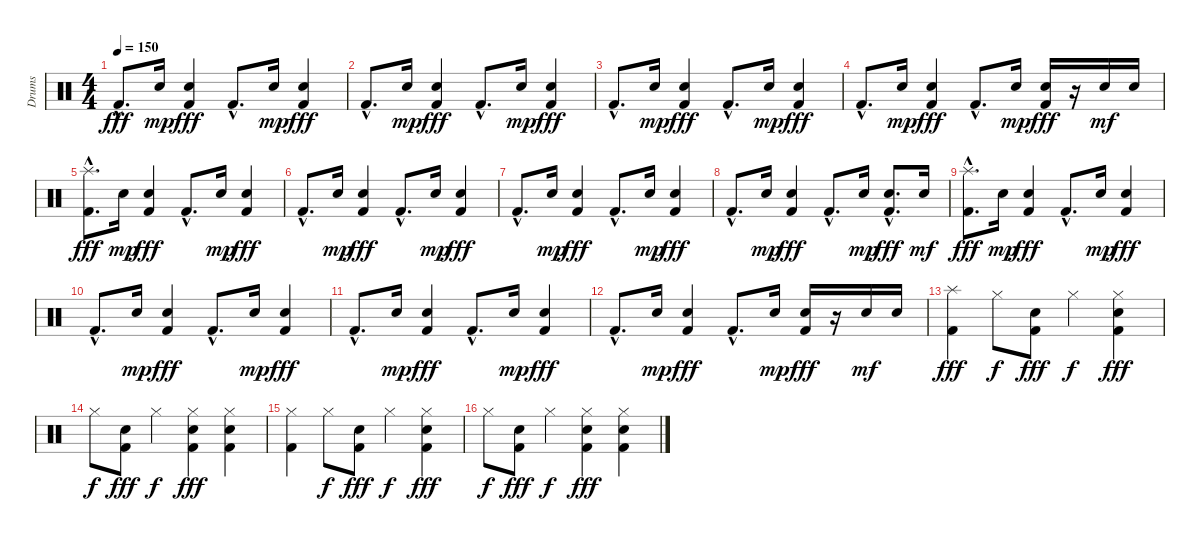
\track ("Drums" "Drums") {instrument percussion}
\staff {score}
\articulation defaults
\ts (4 4)
\tempo 150
\clef neutral
\ks c "Kick (hit) 2"{hac}.8{d dy fff} "Snare (hit) 2".16{dy mp}
("Snare (hit) 2" "Kick (hit) 2").4{dy fff} "Kick (hit) 2"{hac}.8{d} "Snare (hit) 2".16{dy mp} ("Snare (hit) 2" "Kick (hit) 2").4{dy fff} |
"Kick (hit) 2"{hac}.8{d} "Snare (hit) 2".16{dy mp} ("Snare (hit) 2" "Kick (hit) 2").4{dy fff} "Kick (hit) 2"{hac}.8{d} "Snare (hit) 2".16{dy mp} ("Snare (hit) 2" "Kick (hit) 2").4{dy fff} |
"Kick (hit) 2"{hac}.8{d} "Snare (hit) 2".16{dy mp} ("Snare (hit) 2" "Kick (hit) 2").4{dy fff} "Kick (hit) 2"{hac}.8{d} "Snare (hit) 2".16{dy mp} ("Snare (hit) 2" "Kick (hit) 2").4{dy fff} |
"Kick (hit) 2"{hac}.8{d} "Snare (hit) 2".16{dy mp} ("Snare (hit) 2" "Kick (hit) 2").4{dy fff} "Kick (hit) 2"{hac}.8{d} "Snare (hit) 2".16{dy mp} ("Snare (hit) 2" "Kick (hit) 2").16{dy fff} r.16 "Snare (hit) 2".16{dy mf} "Snare (hit) 2".16 |
("Splash (hit)"{hac} "Kick (hit) 2"{hac}).8{d dy fff} "Snare (hit) 2".16{dy mp} ("Snare (hit) 2" "Kick (hit) 2").4{dy fff} "Kick (hit) 2"{hac}.8{d} "Snare (hit) 2".16{dy mp} ("Snare (hit) 2" "Kick (hit) 2").4{dy fff} |
"Kick (hit) 2"{hac}.8{d} "Snare (hit) 2".16{dy mp} ("Snare (hit) 2" "Kick (hit) 2").4{dy fff} "Kick (hit) 2"{hac}.8{d} "Snare (hit) 2".16{dy mp} ("Snare (hit) 2" "Kick (hit) 2").4{dy fff} |
"Kick (hit) 2"{hac}.8{d} "Snare (hit) 2".16{dy mp} ("Snare (hit) 2" "Kick (hit) 2").4{dy fff} "Kick (hit) 2"{hac}.8{d} "Snare (hit) 2".16{dy mp} ("Snare (hit) 2" "Kick (hit) 2").4{dy fff} |
"Kick (hit) 2"{hac}.8{d} "Snare (hit) 2".16{dy mp} ("Snare (hit) 2" "Kick (hit) 2").4{dy fff} "Kick (hit) 2"{hac}.8{d} "Snare (hit) 2".16{dy mp} ("Snare (hit) 2"{hac} "Kick (hit) 2"{hac}).8{d dy fff} "Snare (hit) 2".16{dy mf} |
("Splash (hit)"{hac} "Kick (hit) 2"{hac}).8{d dy fff} "Snare (hit) 2".16{dy mp} ("Snare (hit) 2" "Kick (hit) 2").4{dy fff} "Kick (hit) 2"{hac}.8{d} "Snare (hit) 2".16{dy mp} ("Snare (hit) 2" "Kick (hit) 2").4{dy fff} |
"Kick (hit) 2"{hac}.8{d} "Snare (hit) 2".16{dy mp} ("Snare (hit) 2" "Kick (hit) 2").4{dy fff} "Kick (hit) 2"{hac}.8{d} "Snare (hit) 2".16{dy mp} ("Snare (hit) 2" "Kick (hit) 2").4{dy fff} |
"Kick (hit) 2"{hac}.8{d} "Snare (hit) 2".16{dy mp} ("Snare (hit) 2" "Kick (hit) 2").4{dy fff} "Kick (hit) 2"{hac}.8{d} "Snare (hit) 2".16{dy mp} ("Snare (hit) 2" "Kick (hit) 2").4{dy fff} |
"Kick (hit) 2"{hac}.8{d} "Snare (hit) 2".16{dy mp} ("Snare (hit) 2" "Kick (hit) 2").4{dy fff} "Kick (hit) 2"{hac}.8{d} "Snare (hit) 2".16{dy mp} ("Snare (hit) 2" "Kick (hit) 2").16{dy fff} r.16 "Snare (hit) 2".16{dy mf} "Snare (hit) 2".16 |
("Splash (hit)" "Kick (hit) 2").4{dy fff} "Hi-Hat (closed)".8{dy f} ("Snare (hit) 2" "Kick (hit) 2").8{dy fff} "Hi-Hat (closed)".4{dy f} ("Hi-Hat (closed)" "Snare (hit) 2" "Kick (hit) 2").4{dy fff} |
"Hi-Hat (closed)".8{dy f} ("Snare (hit) 2" "Kick (hit) 2").8{dy fff} "Hi-Hat (closed)".4{dy f} ("Hi-Hat (closed)" "Snare (hit) 2" "Kick (hit) 2").4{dy fff} ("Hi-Hat (closed)" "Snare (hit) 2" "Kick (hit) 2").4 |
("Hi-Hat (closed)" "Kick (hit) 2").4 "Hi-Hat (closed)".8{dy f} ("Snare (hit) 2" "Kick (hit) 2").8{dy fff} "Hi-Hat (closed)".4{dy f} ("Hi-Hat (closed)" "Snare (hit) 2" "Kick (hit) 2").4{dy fff} |
"Hi-Hat (closed)".8{dy f} ("Snare (hit) 2" "Kick (hit) 2").8{dy fff} "Hi-Hat (closed)".4{dy f} ("Hi-Hat (closed)" "Snare (hit) 2" "Kick (hit) 2").4{dy fff} ("Hi-Hat (closed)" "Snare (hit) 2" "Kick (hit) 2").4
